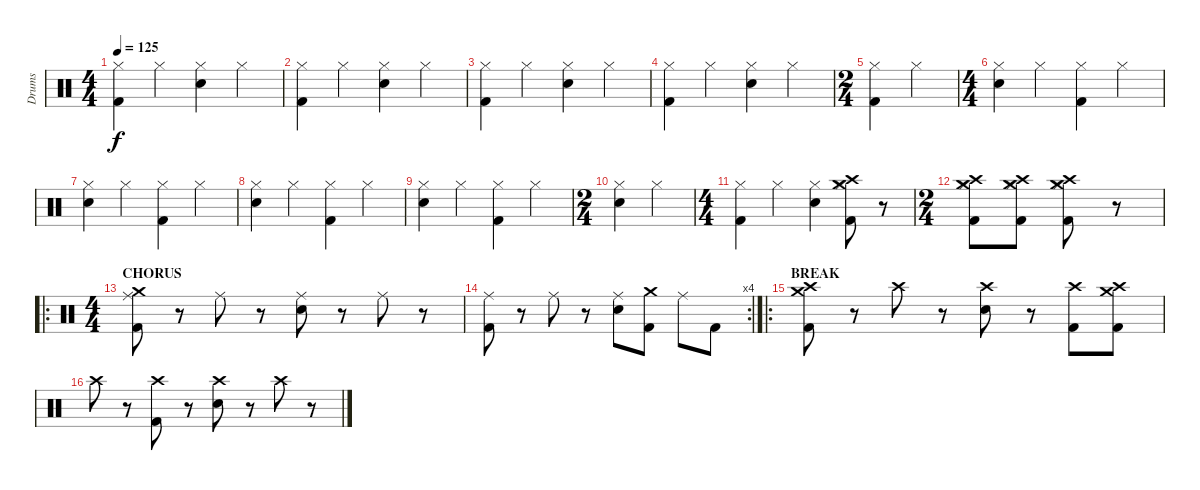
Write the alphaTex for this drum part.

\track ("Drums" "Drums") {instrument percussion}
\staff {score}
\articulation defaults
\ts (4 4)
\tempo 125
\clef neutral
\ks c
("Hi-Hat (closed)" "Kick (hit) 2").4{dy f} "Hi-Hat (closed)".4 ("Hi-Hat (closed)" "Electric Snare (hit)").4 "Hi-Hat (closed)".4 |
("Hi-Hat (closed)" "Kick (hit) 2").4 "Hi-Hat (closed)".4 ("Hi-Hat (closed)" "Electric Snare (hit)").4 "Hi-Hat (closed)".4 |
("Hi-Hat (closed)" "Kick (hit) 2").4 "Hi-Hat (closed)".4 ("Hi-Hat (closed)" "Electric Snare (hit)").4 "Hi-Hat (closed)".4 |
("Hi-Hat (closed)" "Kick (hit) 2").4 "Hi-Hat (closed)".4 ("Hi-Hat (closed)" "Electric Snare (hit)").4 "Hi-Hat (closed)".4 |
\ts (2 4)
("Hi-Hat (closed)" "Kick (hit) 2").4 "Hi-Hat (closed)".4 |
\ts (4 4)
("Hi-Hat (closed)" "Electric Snare (hit)").4 "Hi-Hat (closed)".4 ("Hi-Hat (closed)" "Kick (hit) 2").4 "Hi-Hat (closed)".4 |
("Hi-Hat (closed)" "Electric Snare (hit)").4 "Hi-Hat (closed)".4 ("Hi-Hat (closed)" "Kick (hit) 2").4 "Hi-Hat (closed)".4 |
("Hi-Hat (closed)" "Electric Snare (hit)").4 "Hi-Hat (closed)".4 ("Hi-Hat (closed)" "Kick (hit) 2").4 "Hi-Hat (closed)".4 |
("Hi-Hat (closed)" "Electric Snare (hit)").4 "Hi-Hat (closed)".4 ("Hi-Hat (closed)" "Kick (hit) 2").4 "Hi-Hat (closed)".4 |
\ts (2 4)
("Hi-Hat (closed)" "Electric Snare (hit)").4 "Hi-Hat (closed)".4 |
\ts (4 4)
("Hi-Hat (closed)" "Kick (hit) 2").4 "Hi-Hat (closed)".4 ("Hi-Hat (closed)" "Electric Snare (hit)").4 ("Crash medium (hit)" "Crash high (hit)" "Hi-Hat (closed)" "Kick (hit) 2").8 r.8 |
\ts (2 4)
("Crash medium (hit)" "Crash high (hit)" "Hi-Hat (closed)" "Kick (hit) 2").8 ("Crash medium (hit)" "Crash high (hit)" "Hi-Hat (closed)" "Kick (hit) 2").8 ("Crash medium (hit)" "Crash high (hit)" "Hi-Hat (closed)" "Kick (hit) 2").8 r.8 |
\ro
\ts (4 4)
\section ("" "CHORUS")
("Crash medium (hit)" "Ride (middle)" "Kick (hit) 2").8 r.8 "Ride (middle)".8 r.8 ("Ride (middle)" "Electric Snare (hit)").8 r.8 "Ride (middle)".8 r.8 |
\rc 4
("Ride (middle)" "Kick (hit) 2").8 r.8 "Ride (middle)".8 r.8 ("Ride (middle)" "Electric Snare (hit)").8 ("Crash medium (hit)" "Kick (hit) 2").8 "Ride (middle)".8 "Kick (hit) 2".8 |
\ro
\section ("" "BREAK")
("Crash medium (hit)" "Crash high (hit)" "Kick (hit) 2").8 r.8 "Crash high (hit)".8 r.8 ("Crash high (hit)" "Electric Snare (hit)").8 r.8 ("Crash high (hit)" "Kick (hit) 2").8 ("Crash medium (hit)" "Crash high (hit)" "Kick (hit) 2").8 |
"Crash high (hit)".8 r.8 ("Crash high (hit)" "Kick (hit) 2").8 r.8 ("Crash high (hit)" "Electric Snare (hit)").8 r.8 "Crash high (hit)".8 r.8
